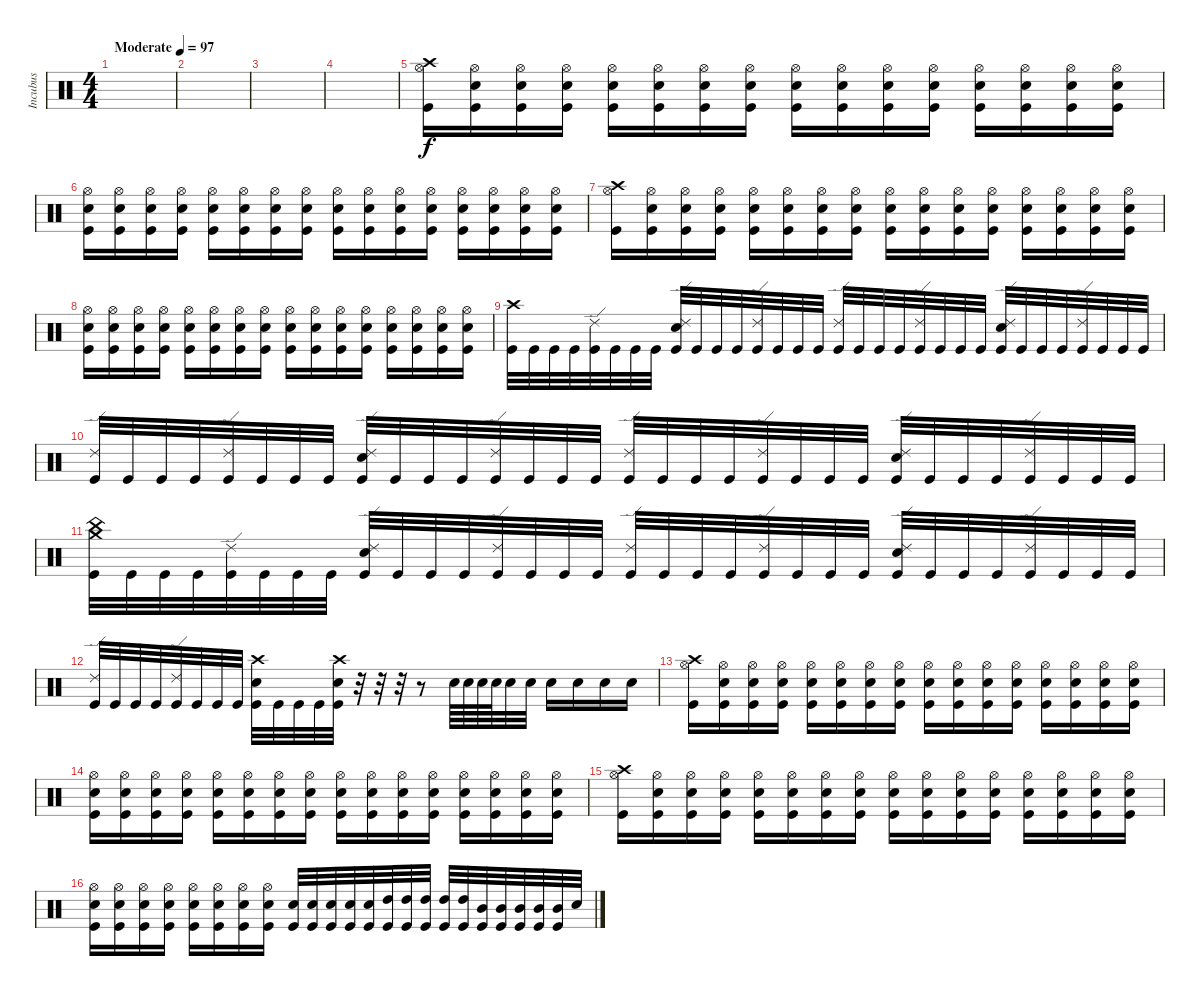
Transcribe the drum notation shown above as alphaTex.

\track ("Incubus" "Incubus") {instrument percussion}
\staff {score}
\articulation defaults
\ts (4 4)
\tempo (97 "Moderate")
\clef neutral
\ks c
|
|
|
|
("Crash high (hit)" "Hi-Hat (open)" "Kick (hit)").16 ("Electric Snare (hit)" "Hi-Hat (open)" "Kick (hit)").16 ("Electric Snare (hit)" "Hi-Hat (open)" "Kick (hit)").16 ("Electric Snare (hit)" "Hi-Hat (open)" "Kick (hit)").16 ("Electric Snare (hit)" "Hi-Hat (open)" "Kick (hit)").16 ("Electric Snare (hit)" "Hi-Hat (open)" "Kick (hit)").16 ("Electric Snare (hit)" "Hi-Hat (open)" "Kick (hit)").16 ("Electric Snare (hit)" "Hi-Hat (open)" "Kick (hit)").16 ("Electric Snare (hit)" "Hi-Hat (open)" "Kick (hit)").16 ("Electric Snare (hit)" "Hi-Hat (open)" "Kick (hit)").16 ("Electric Snare (hit)" "Hi-Hat (open)" "Kick (hit)").16 ("Electric Snare (hit)" "Hi-Hat (open)" "Kick (hit)").16 ("Electric Snare (hit)" "Hi-Hat (open)" "Kick (hit)").16 ("Electric Snare (hit)" "Hi-Hat (open)" "Kick (hit)").16 ("Electric Snare (hit)" "Hi-Hat (open)" "Kick (hit)").16 ("Electric Snare (hit)" "Hi-Hat (open)" "Kick (hit)").16 |
("Electric Snare (hit)" "Hi-Hat (open)" "Kick (hit)").16 ("Electric Snare (hit)" "Hi-Hat (open)" "Kick (hit)").16 ("Electric Snare (hit)" "Hi-Hat (open)" "Kick (hit)").16 ("Electric Snare (hit)" "Hi-Hat (open)" "Kick (hit)").16 ("Electric Snare (hit)" "Hi-Hat (open)" "Kick (hit)").16 ("Electric Snare (hit)" "Hi-Hat (open)" "Kick (hit)").16 ("Electric Snare (hit)" "Hi-Hat (open)" "Kick (hit)").16 ("Electric Snare (hit)" "Hi-Hat (open)" "Kick (hit)").16 ("Electric Snare (hit)" "Hi-Hat (open)" "Kick (hit)").16 ("Electric Snare (hit)" "Hi-Hat (open)" "Kick (hit)").16 ("Electric Snare (hit)" "Hi-Hat (open)" "Kick (hit)").16 ("Electric Snare (hit)" "Hi-Hat (open)" "Kick (hit)").16 ("Electric Snare (hit)" "Hi-Hat (open)" "Kick (hit)").16 ("Electric Snare (hit)" "Hi-Hat (open)" "Kick (hit)").16 ("Electric Snare (hit)" "Hi-Hat (open)" "Kick (hit)").16 ("Electric Snare (hit)" "Kick (hit)" "Hi-Hat (open)").16 |
("Crash high (hit)" "Hi-Hat (open)" "Kick (hit)").16 ("Electric Snare (hit)" "Hi-Hat (open)" "Kick (hit)").16 ("Electric Snare (hit)" "Hi-Hat (open)" "Kick (hit)").16 ("Electric Snare (hit)" "Hi-Hat (open)" "Kick (hit)").16 ("Electric Snare (hit)" "Hi-Hat (open)" "Kick (hit)").16 ("Electric Snare (hit)" "Hi-Hat (open)" "Kick (hit)").16 ("Electric Snare (hit)" "Hi-Hat (open)" "Kick (hit)").16 ("Electric Snare (hit)" "Hi-Hat (open)" "Kick (hit)").16 ("Electric Snare (hit)" "Hi-Hat (open)" "Kick (hit)").16 ("Electric Snare (hit)" "Hi-Hat (open)" "Kick (hit)").16 ("Electric Snare (hit)" "Hi-Hat (open)" "Kick (hit)").16 ("Electric Snare (hit)" "Hi-Hat (open)" "Kick (hit)").16 ("Electric Snare (hit)" "Hi-Hat (open)" "Kick (hit)").16 ("Electric Snare (hit)" "Hi-Hat (open)" "Kick (hit)").16 ("Electric Snare (hit)" "Hi-Hat (open)" "Kick (hit)").16 ("Electric Snare (hit)" "Hi-Hat (open)" "Kick (hit)").16 |
("Electric Snare (hit)" "Hi-Hat (open)" "Kick (hit)").16 ("Electric Snare (hit)" "Hi-Hat (open)" "Kick (hit)").16 ("Electric Snare (hit)" "Hi-Hat (open)" "Kick (hit)").16 ("Electric Snare (hit)" "Hi-Hat (open)" "Kick (hit)").16 ("Electric Snare (hit)" "Hi-Hat (open)" "Kick (hit)").16 ("Electric Snare (hit)" "Hi-Hat (open)" "Kick (hit)").16 ("Electric Snare (hit)" "Hi-Hat (open)" "Kick (hit)").16 ("Electric Snare (hit)" "Hi-Hat (open)" "Kick (hit)").16 ("Electric Snare (hit)" "Hi-Hat (open)" "Kick (hit)").16 ("Electric Snare (hit)" "Hi-Hat (open)" "Kick (hit)").16 ("Electric Snare (hit)" "Hi-Hat (open)" "Kick (hit)").16 ("Electric Snare (hit)" "Hi-Hat (open)" "Kick (hit)").16 ("Electric Snare (hit)" "Hi-Hat (open)" "Kick (hit)").16 ("Electric Snare (hit)" "Hi-Hat (open)" "Kick (hit)").16 ("Electric Snare (hit)" "Hi-Hat (open)" "Kick (hit)").16 ("Electric Snare (hit)" "Kick (hit)" "Hi-Hat (open)").16 |
("Crash high (hit)" "Kick (hit)").32 "Kick (hit)".32 "Kick (hit)".32 "Kick (hit)".32 ("Ride (edge) 2" "Kick (hit)").32 "Kick (hit)".32 "Kick (hit)".32 "Kick (hit)".32 ("Ride (edge) 2" "Electric Snare (hit)" "Kick (hit)").32 "Kick (hit)".32 "Kick (hit)".32 "Kick (hit)".32 ("Ride (edge) 2" "Kick (hit)").32 "Kick (hit)".32 "Kick (hit)".32 "Kick (hit)".32 ("Ride (edge) 2" "Kick (hit)").32 "Kick (hit)".32 "Kick (hit)".32 "Kick (hit)".32 ("Ride (edge) 2" "Kick (hit)").32 "Kick (hit)".32 "Kick (hit)".32 "Kick (hit)".32 ("Ride (edge) 2" "Electric Snare (hit)" "Kick (hit)").32 "Kick (hit)".32 "Kick (hit)".32 "Kick (hit)".32 ("Ride (edge) 2" "Kick (hit)").32 "Kick (hit)".32 "Kick (hit)".32 "Kick (hit)".32 |
("Ride (edge) 2" "Kick (hit)").32 "Kick (hit)".32 "Kick (hit)".32 "Kick (hit)".32 ("Ride (edge) 2" "Kick (hit)").32 "Kick (hit)".32 "Kick (hit)".32 "Kick (hit)".32 ("Ride (edge) 2" "Electric Snare (hit)" "Kick (hit)").32 "Kick (hit)".32 "Kick (hit)".32 "Kick (hit)".32 ("Ride (edge) 2" "Kick (hit)").32 "Kick (hit)".32 "Kick (hit)".32 "Kick (hit)".32 ("Ride (edge) 2" "Kick (hit)").32 "Kick (hit)".32 "Kick (hit)".32 "Kick (hit)".32 ("Ride (edge) 2" "Kick (hit)").32 "Kick (hit)".32 "Kick (hit)".32 "Kick (hit)".32 ("Ride (edge) 2" "Electric Snare (hit)" "Kick (hit)").32 "Kick (hit)".32 "Kick (hit)".32 "Kick (hit)".32 ("Ride (edge) 2" "Kick (hit)").32 "Kick (hit)".32 "Kick (hit)".32 "Kick (hit)".32 |
("Crash medium (hit)" "China (hit)" "Kick (hit)").32 "Kick (hit)".32 "Kick (hit)".32 "Kick (hit)".32 ("Ride (edge) 2" "Kick (hit)").32 "Kick (hit)".32 "Kick (hit)".32 "Kick (hit)".32 ("Ride (edge) 2" "Electric Snare (hit)" "Kick (hit)").32 "Kick (hit)".32 "Kick (hit)".32 "Kick (hit)".32 ("Ride (edge) 2" "Kick (hit)").32 "Kick (hit)".32 "Kick (hit)".32 "Kick (hit)".32 ("Ride (edge) 2" "Kick (hit)").32 "Kick (hit)".32 "Kick (hit)".32 "Kick (hit)".32 ("Ride (edge) 2" "Kick (hit)").32 "Kick (hit)".32 "Kick (hit)".32 "Kick (hit)".32 ("Ride (edge) 2" "Electric Snare (hit)" "Kick (hit)").32 "Kick (hit)".32 "Kick (hit)".32 "Kick (hit)".32 ("Ride (edge) 2" "Kick (hit)").32 "Kick (hit)".32 "Kick (hit)".32 "Kick (hit)".32 |
("Ride (edge) 2" "Kick (hit)").32 "Kick (hit)".32 "Kick (hit)".32 "Kick (hit)".32 ("Ride (edge) 2" "Kick (hit)").32 "Kick (hit)".32 "Kick (hit)".32 "Kick (hit)".32 ("Crash high (hit)" "Electric Snare (hit)" "Kick (hit)").32 "Kick (hit)".32 "Kick (hit)".32 "Kick (hit)".32 ("Crash high (hit)" "Electric Snare (hit)" "Kick (hit)").32 r.32 r.32 r.32 r.8 "Electric Snare (hit)".64 "Electric Snare (hit)".64 "Electric Snare (hit)".64 "Electric Snare (hit)".64 "Electric Snare (hit)".32 "Electric Snare (hit)".32 "Electric Snare (hit)".16 "Electric Snare (hit)".16 "Electric Snare (hit)".16 "Electric Snare (hit)".16 |
("Crash high (hit)" "Hi-Hat (open)" "Kick (hit)").16 ("Electric Snare (hit)" "Hi-Hat (open)" "Kick (hit)").16 ("Electric Snare (hit)" "Hi-Hat (open)" "Kick (hit)").16 ("Electric Snare (hit)" "Hi-Hat (open)" "Kick (hit)").16 ("Electric Snare (hit)" "Hi-Hat (open)" "Kick (hit)").16 ("Electric Snare (hit)" "Hi-Hat (open)" "Kick (hit)").16 ("Electric Snare (hit)" "Hi-Hat (open)" "Kick (hit)").16 ("Electric Snare (hit)" "Hi-Hat (open)" "Kick (hit)").16 ("Electric Snare (hit)" "Hi-Hat (open)" "Kick (hit)").16 ("Electric Snare (hit)" "Hi-Hat (open)" "Kick (hit)").16 ("Electric Snare (hit)" "Hi-Hat (open)" "Kick (hit)").16 ("Electric Snare (hit)" "Hi-Hat (open)" "Kick (hit)").16 ("Electric Snare (hit)" "Hi-Hat (open)" "Kick (hit)").16 ("Electric Snare (hit)" "Hi-Hat (open)" "Kick (hit)").16 ("Electric Snare (hit)" "Hi-Hat (open)" "Kick (hit)").16 ("Electric Snare (hit)" "Hi-Hat (open)" "Kick (hit)").16 |
("Electric Snare (hit)" "Hi-Hat (open)" "Kick (hit)").16 ("Electric Snare (hit)" "Hi-Hat (open)" "Kick (hit)").16 ("Electric Snare (hit)" "Hi-Hat (open)" "Kick (hit)").16 ("Electric Snare (hit)" "Hi-Hat (open)" "Kick (hit)").16 ("Electric Snare (hit)" "Hi-Hat (open)" "Kick (hit)").16 ("Electric Snare (hit)" "Hi-Hat (open)" "Kick (hit)").16 ("Electric Snare (hit)" "Hi-Hat (open)" "Kick (hit)").16 ("Electric Snare (hit)" "Hi-Hat (open)" "Kick (hit)").16 ("Electric Snare (hit)" "Hi-Hat (open)" "Kick (hit)").16 ("Electric Snare (hit)" "Hi-Hat (open)" "Kick (hit)").16 ("Electric Snare (hit)" "Hi-Hat (open)" "Kick (hit)").16 ("Electric Snare (hit)" "Hi-Hat (open)" "Kick (hit)").16 ("Electric Snare (hit)" "Hi-Hat (open)" "Kick (hit)").16 ("Electric Snare (hit)" "Hi-Hat (open)" "Kick (hit)").16 ("Electric Snare (hit)" "Hi-Hat (open)" "Kick (hit)").16 ("Electric Snare (hit)" "Kick (hit)" "Hi-Hat (open)").16 |
("Crash high (hit)" "Hi-Hat (open)" "Kick (hit)").16 ("Electric Snare (hit)" "Hi-Hat (open)" "Kick (hit)").16 ("Electric Snare (hit)" "Hi-Hat (open)" "Kick (hit)").16 ("Electric Snare (hit)" "Hi-Hat (open)" "Kick (hit)").16 ("Electric Snare (hit)" "Hi-Hat (open)" "Kick (hit)").16 ("Electric Snare (hit)" "Hi-Hat (open)" "Kick (hit)").16 ("Electric Snare (hit)" "Hi-Hat (open)" "Kick (hit)").16 ("Electric Snare (hit)" "Hi-Hat (open)" "Kick (hit)").16 ("Electric Snare (hit)" "Hi-Hat (open)" "Kick (hit)").16 ("Electric Snare (hit)" "Hi-Hat (open)" "Kick (hit)").16 ("Electric Snare (hit)" "Hi-Hat (open)" "Kick (hit)").16 ("Electric Snare (hit)" "Hi-Hat (open)" "Kick (hit)").16 ("Electric Snare (hit)" "Hi-Hat (open)" "Kick (hit)").16 ("Electric Snare (hit)" "Hi-Hat (open)" "Kick (hit)").16 ("Electric Snare (hit)" "Hi-Hat (open)" "Kick (hit)").16 ("Electric Snare (hit)" "Hi-Hat (open)" "Kick (hit)").16 |
("Electric Snare (hit)" "Hi-Hat (open)" "Kick (hit)").16 ("Electric Snare (hit)" "Hi-Hat (open)" "Kick (hit)").16 ("Electric Snare (hit)" "Hi-Hat (open)" "Kick (hit)").16 ("Electric Snare (hit)" "Hi-Hat (open)" "Kick (hit)").16 ("Electric Snare (hit)" "Hi-Hat (open)" "Kick (hit)").16 ("Electric Snare (hit)" "Hi-Hat (open)" "Kick (hit)").16 ("Electric Snare (hit)" "Hi-Hat (open)" "Kick (hit)").16 ("Electric Snare (hit)" "Hi-Hat (open)" "Kick (hit)").16 ("Electric Snare (hit)" "Kick (hit)").32 ("Electric Snare (hit)" "Kick (hit)").32 ("Electric Snare (hit)" "Kick (hit)").32 ("Electric Snare (hit)" "Kick (hit)").32 ("Electric Snare (hit)" "Kick (hit)").32 ("High Tom (hit)" "Kick (hit)").32 ("High Tom (hit)" "Kick (hit)").32 ("High Tom (hit)" "Kick (hit)").32 ("High Tom (hit)" "Kick (hit)").32 ("High Tom (hit)" "Kick (hit)").32 ("Mid Tom (hit)" "Kick (hit)").32 ("Mid Tom (hit)" "Kick (hit)").32 ("Mid Tom (hit)" "Kick (hit)").32 ("Mid Tom (hit)" "Kick (hit)").32 ("Mid Tom (hit)" "Kick (hit)").32 "Electric Snare (hit)".32
